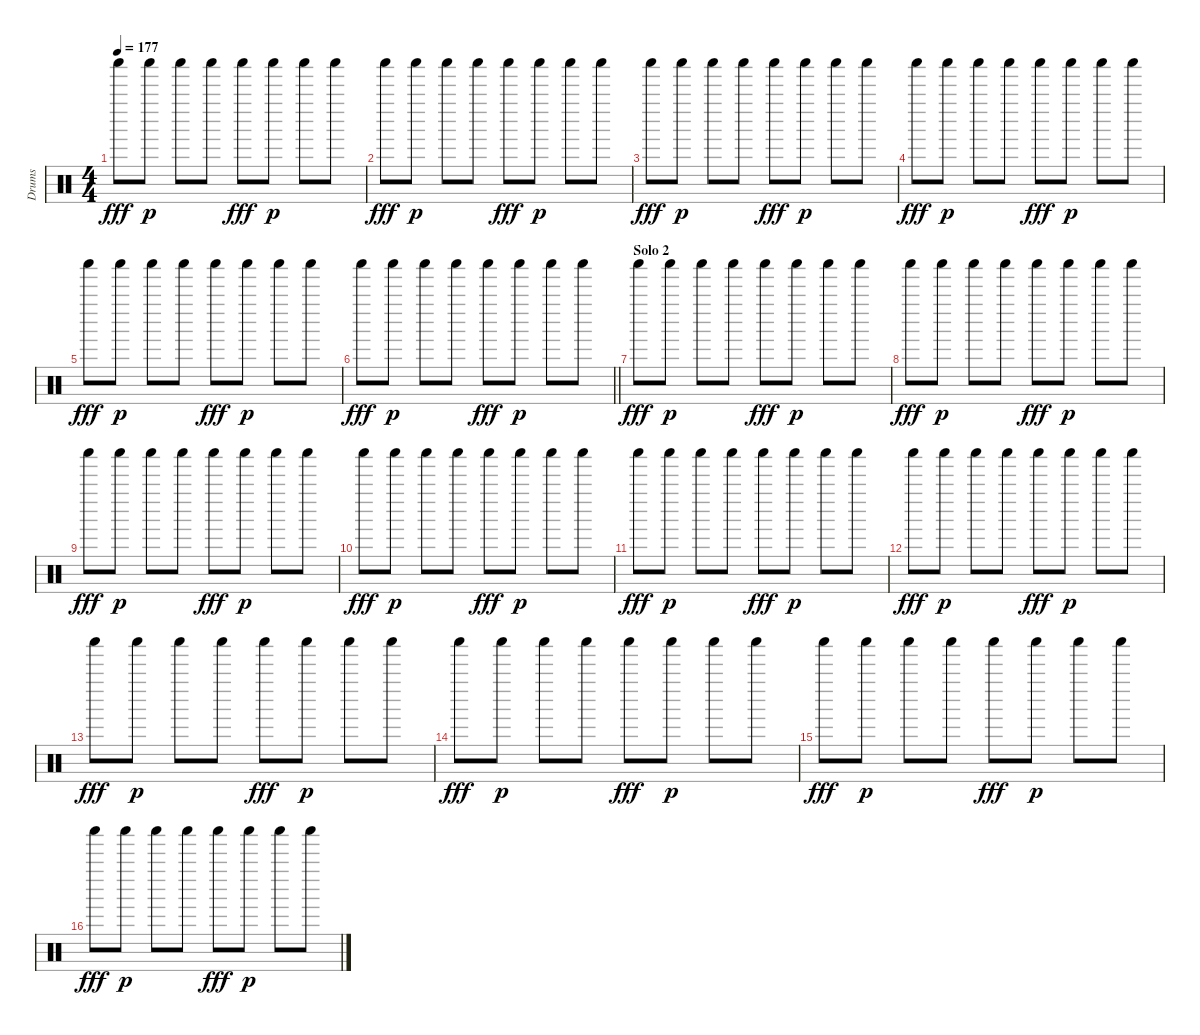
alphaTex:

\track ("Drums" "Drums") {instrument percussion}
\staff {score}
\articulation defaults
\ts (4 4)
\tempo 177
\clef neutral
\ks c "Shaker (hit)".8{dy fff} "Shaker (hit)".8{dy p} "Shaker (hit)".8 "Shaker (hit)".8 "Shaker (hit)".8{dy fff} "Shaker (hit)".8{dy p} "Shaker (hit)".8 "Shaker (hit)".8
|
"Shaker (hit)".8{dy fff} "Shaker (hit)".8{dy p} "Shaker (hit)".8 "Shaker (hit)".8 "Shaker (hit)".8{dy fff} "Shaker (hit)".8{dy p} "Shaker (hit)".8 "Shaker (hit)".8 |
"Shaker (hit)".8{dy fff} "Shaker (hit)".8{dy p} "Shaker (hit)".8 "Shaker (hit)".8 "Shaker (hit)".8{dy fff} "Shaker (hit)".8{dy p} "Shaker (hit)".8 "Shaker (hit)".8 |
"Shaker (hit)".8{dy fff} "Shaker (hit)".8{dy p} "Shaker (hit)".8 "Shaker (hit)".8 "Shaker (hit)".8{dy fff} "Shaker (hit)".8{dy p} "Shaker (hit)".8 "Shaker (hit)".8 |
"Shaker (hit)".8{dy fff} "Shaker (hit)".8{dy p} "Shaker (hit)".8 "Shaker (hit)".8 "Shaker (hit)".8{dy fff} "Shaker (hit)".8{dy p} "Shaker (hit)".8 "Shaker (hit)".8 |
\barLineRight lightlight "Shaker (hit)".8{dy fff} "Shaker (hit)".8{dy p} "Shaker (hit)".8 "Shaker (hit)".8 "Shaker (hit)".8{dy fff} "Shaker (hit)".8{dy p} "Shaker (hit)".8 "Shaker (hit)".8
|
\section ("" "Solo 2")
"Shaker (hit)".8{dy fff} "Shaker (hit)".8{dy p} "Shaker (hit)".8 "Shaker (hit)".8 "Shaker (hit)".8{dy fff} "Shaker (hit)".8{dy p} "Shaker (hit)".8 "Shaker (hit)".8 |
"Shaker (hit)".8{dy fff} "Shaker (hit)".8{dy p} "Shaker (hit)".8 "Shaker (hit)".8 "Shaker (hit)".8{dy fff} "Shaker (hit)".8{dy p} "Shaker (hit)".8 "Shaker (hit)".8 |
"Shaker (hit)".8{dy fff} "Shaker (hit)".8{dy p} "Shaker (hit)".8 "Shaker (hit)".8 "Shaker (hit)".8{dy fff} "Shaker (hit)".8{dy p} "Shaker (hit)".8 "Shaker (hit)".8 |
"Shaker (hit)".8{dy fff} "Shaker (hit)".8{dy p} "Shaker (hit)".8 "Shaker (hit)".8 "Shaker (hit)".8{dy fff} "Shaker (hit)".8{dy p} "Shaker (hit)".8 "Shaker (hit)".8 |
"Shaker (hit)".8{dy fff} "Shaker (hit)".8{dy p} "Shaker (hit)".8 "Shaker (hit)".8 "Shaker (hit)".8{dy fff} "Shaker (hit)".8{dy p} "Shaker (hit)".8 "Shaker (hit)".8 |
"Shaker (hit)".8{dy fff} "Shaker (hit)".8{dy p} "Shaker (hit)".8 "Shaker (hit)".8 "Shaker (hit)".8{dy fff} "Shaker (hit)".8{dy p} "Shaker (hit)".8 "Shaker (hit)".8 |
"Shaker (hit)".8{dy fff} "Shaker (hit)".8{dy p} "Shaker (hit)".8 "Shaker (hit)".8 "Shaker (hit)".8{dy fff} "Shaker (hit)".8{dy p} "Shaker (hit)".8 "Shaker (hit)".8 |
"Shaker (hit)".8{dy fff} "Shaker (hit)".8{dy p} "Shaker (hit)".8 "Shaker (hit)".8 "Shaker (hit)".8{dy fff} "Shaker (hit)".8{dy p} "Shaker (hit)".8 "Shaker (hit)".8 |
"Shaker (hit)".8{dy fff} "Shaker (hit)".8{dy p} "Shaker (hit)".8 "Shaker (hit)".8 "Shaker (hit)".8{dy fff} "Shaker (hit)".8{dy p} "Shaker (hit)".8 "Shaker (hit)".8 |
"Shaker (hit)".8{dy fff} "Shaker (hit)".8{dy p} "Shaker (hit)".8 "Shaker (hit)".8 "Shaker (hit)".8{dy fff} "Shaker (hit)".8{dy p} "Shaker (hit)".8 "Shaker (hit)".8
